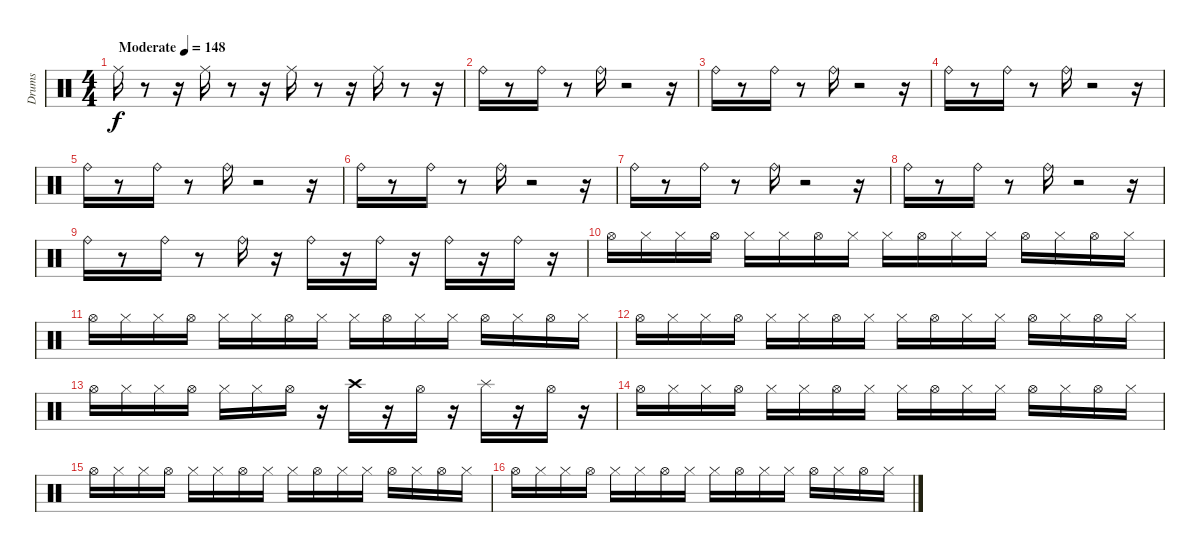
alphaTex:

\track ("Drums" "Drums") {instrument percussion}
\staff {score}
\articulation defaults
\ts (4 4)
\tempo (148 "Moderate")
\clef neutral
\ks c "Ride (middle)".16{dy f}
r.8 r.16 "Ride (middle)".16 r.8 r.16 "Ride (middle)".16 r.8 r.16 "Ride (middle)".16 r.8 r.16 |
"Ride (bell)".16 r.8 "Ride (bell)".16 r.8 "Ride (bell)".16 r.2 r.16 |
"Ride (bell)".16 r.8 "Ride (bell)".16 r.8 "Ride (bell)".16 r.2 r.16 |
"Ride (bell)".16 r.8 "Ride (bell)".16 r.8 "Ride (bell)".16 r.2 r.16 |
"Ride (bell)".16 r.8 "Ride (bell)".16 r.8 "Ride (bell)".16 r.2 r.16 |
"Ride (bell)".16 r.8 "Ride (bell)".16 r.8 "Ride (bell)".16 r.2 r.16 |
"Ride (bell)".16 r.8 "Ride (bell)".16 r.8 "Ride (bell)".16 r.2 r.16 |
"Ride (bell)".16 r.8 "Ride (bell)".16 r.8 "Ride (bell)".16 r.2 r.16 |
"Ride (bell)".16 r.8 "Ride (bell)".16 r.8 "Ride (bell)".16 r.16 "Ride (bell)".16 r.16 "Ride (bell)".16 r.16 "Ride (bell)".16 r.16 "Ride (bell)".16 r.16 |
"Hi-Hat (open)".16 "Hi-Hat (closed)".16 "Hi-Hat (closed)".16 "Hi-Hat (open)".16 "Hi-Hat (closed)".16 "Hi-Hat (closed)".16 "Hi-Hat (open)".16 "Hi-Hat (closed)".16 "Hi-Hat (closed)".16 "Hi-Hat (open)".16 "Hi-Hat (closed)".16 "Hi-Hat (closed)".16 "Hi-Hat (open)".16 "Hi-Hat (closed)".16 "Hi-Hat (open)".16 "Hi-Hat (closed)".16 |
"Hi-Hat (open)".16 "Hi-Hat (closed)".16 "Hi-Hat (closed)".16 "Hi-Hat (open)".16 "Hi-Hat (closed)".16 "Hi-Hat (closed)".16 "Hi-Hat (open)".16 "Hi-Hat (closed)".16 "Hi-Hat (closed)".16 "Hi-Hat (open)".16 "Hi-Hat (closed)".16 "Hi-Hat (closed)".16 "Hi-Hat (open)".16 "Hi-Hat (closed)".16 "Hi-Hat (open)".16 "Hi-Hat (closed)".16 |
"Hi-Hat (open)".16 "Hi-Hat (closed)".16 "Hi-Hat (closed)".16 "Hi-Hat (open)".16 "Hi-Hat (closed)".16 "Hi-Hat (closed)".16 "Hi-Hat (open)".16 "Hi-Hat (closed)".16 "Hi-Hat (closed)".16 "Hi-Hat (open)".16 "Hi-Hat (closed)".16 "Hi-Hat (closed)".16 "Hi-Hat (open)".16 "Hi-Hat (closed)".16 "Hi-Hat (open)".16 "Hi-Hat (closed)".16 |
"Hi-Hat (open)".16 "Hi-Hat (closed)".16 "Hi-Hat (closed)".16 "Hi-Hat (open)".16 "Hi-Hat (closed)".16 "Hi-Hat (closed)".16 "Hi-Hat (open)".16 r.16 "Crash high (hit)".16 r.16 "Hi-Hat (open)".16 r.16 "Splash (hit)".16 r.16 "Hi-Hat (open)".16 r.16 |
"Hi-Hat (open)".16 "Hi-Hat (closed)".16 "Hi-Hat (closed)".16 "Hi-Hat (open)".16 "Hi-Hat (closed)".16 "Hi-Hat (closed)".16 "Hi-Hat (open)".16 "Hi-Hat (closed)".16 "Hi-Hat (closed)".16 "Hi-Hat (open)".16 "Hi-Hat (closed)".16 "Hi-Hat (closed)".16 "Hi-Hat (open)".16 "Hi-Hat (closed)".16 "Hi-Hat (open)".16 "Hi-Hat (closed)".16 |
"Hi-Hat (open)".16 "Hi-Hat (closed)".16 "Hi-Hat (closed)".16 "Hi-Hat (open)".16 "Hi-Hat (closed)".16 "Hi-Hat (closed)".16 "Hi-Hat (open)".16 "Hi-Hat (closed)".16 "Hi-Hat (closed)".16 "Hi-Hat (open)".16 "Hi-Hat (closed)".16 "Hi-Hat (closed)".16 "Hi-Hat (open)".16 "Hi-Hat (closed)".16 "Hi-Hat (open)".16 "Hi-Hat (closed)".16 |
"Hi-Hat (open)".16 "Hi-Hat (closed)".16 "Hi-Hat (closed)".16 "Hi-Hat (open)".16 "Hi-Hat (closed)".16 "Hi-Hat (closed)".16 "Hi-Hat (open)".16 "Hi-Hat (closed)".16 "Hi-Hat (closed)".16 "Hi-Hat (open)".16 "Hi-Hat (closed)".16 "Hi-Hat (closed)".16 "Hi-Hat (open)".16 "Hi-Hat (closed)".16 "Hi-Hat (open)".16 "Hi-Hat (closed)".16
